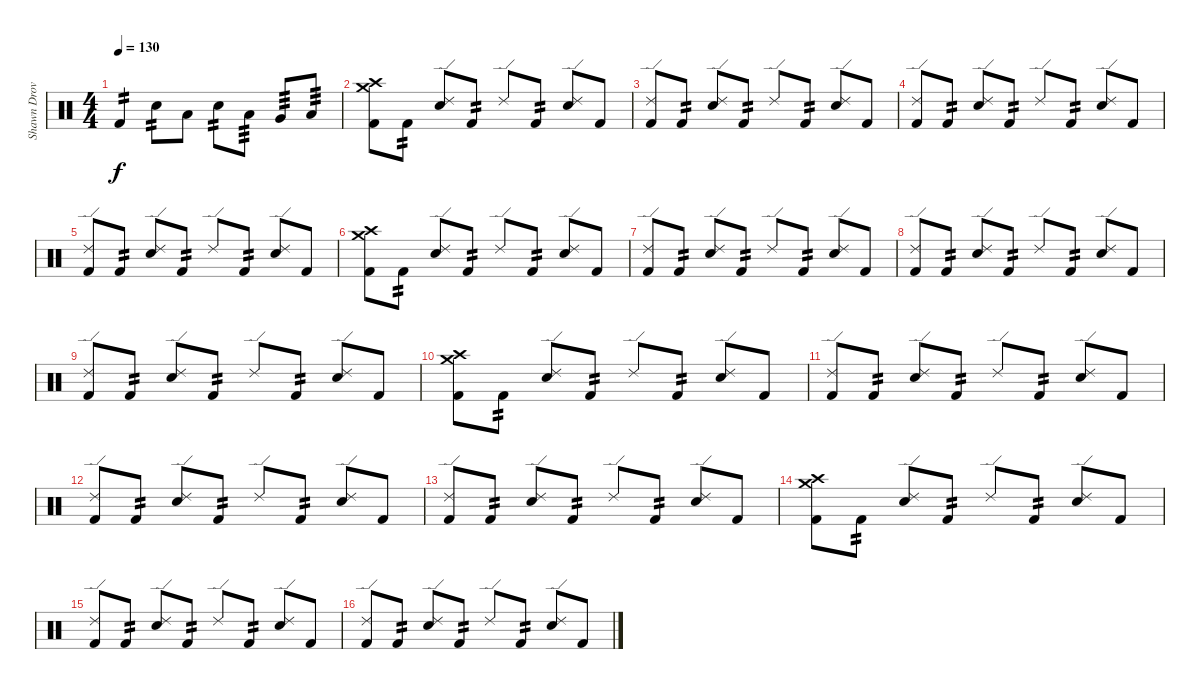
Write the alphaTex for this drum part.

\track ("Shawn Drover" "Shawn Drov") {instrument percussion}
\staff {score}
\articulation defaults
\ts (4 4)
\tempo 130
\clef neutral
\ks c "Kick (hit) 2".4{tp 2 dy f} "Electric Snare (hit)".8{tp 2} "Low Tom (hit)".8 "Electric Snare (hit)".8{tp 2} "Low Tom (hit)".8{tp 3} "Very Low Tom (hit)".8{tp 3} "Low Floor Tom (hit)".8{tp 3}
|
("Crash high (hit)" "Crash medium (hit)" "Kick (hit) 2").8 "Kick (hit) 2".8{tp 2} ("Ride (edge) 2" "Snare (hit) 2").8 "Kick (hit) 2".8{tp 2} "Ride (edge) 2".8 "Kick (hit) 2".8{tp 2} ("Ride (edge) 2" "Snare (hit) 2").8 "Kick (hit) 2".8 |
("Ride (edge) 2" "Kick (hit) 2").8 "Kick (hit) 2".8{tp 2} ("Ride (edge) 2" "Snare (hit) 2").8 "Kick (hit) 2".8{tp 2} "Ride (edge) 2".8 "Kick (hit) 2".8{tp 2} ("Ride (edge) 2" "Snare (hit) 2").8 "Kick (hit) 2".8 |
("Ride (edge) 2" "Kick (hit) 2").8 "Kick (hit) 2".8{tp 2} ("Ride (edge) 2" "Snare (hit) 2").8 "Kick (hit) 2".8{tp 2} "Ride (edge) 2".8 "Kick (hit) 2".8{tp 2} ("Ride (edge) 2" "Snare (hit) 2").8 "Kick (hit) 2".8 |
("Ride (edge) 2" "Kick (hit) 2").8 "Kick (hit) 2".8{tp 2} ("Ride (edge) 2" "Snare (hit) 2").8 "Kick (hit) 2".8{tp 2} "Ride (edge) 2".8 "Kick (hit) 2".8{tp 2} ("Ride (edge) 2" "Snare (hit) 2").8 "Kick (hit) 2".8 |
("Crash high (hit)" "Crash medium (hit)" "Kick (hit) 2").8 "Kick (hit) 2".8{tp 2} ("Ride (edge) 2" "Snare (hit) 2").8 "Kick (hit) 2".8{tp 2} "Ride (edge) 2".8 "Kick (hit) 2".8{tp 2} ("Ride (edge) 2" "Snare (hit) 2").8 "Kick (hit) 2".8 |
("Ride (edge) 2" "Kick (hit) 2").8 "Kick (hit) 2".8{tp 2} ("Ride (edge) 2" "Snare (hit) 2").8 "Kick (hit) 2".8{tp 2} "Ride (edge) 2".8 "Kick (hit) 2".8{tp 2} ("Ride (edge) 2" "Snare (hit) 2").8 "Kick (hit) 2".8 |
("Ride (edge) 2" "Kick (hit) 2").8 "Kick (hit) 2".8{tp 2} ("Ride (edge) 2" "Snare (hit) 2").8 "Kick (hit) 2".8{tp 2} "Ride (edge) 2".8 "Kick (hit) 2".8{tp 2} ("Ride (edge) 2" "Snare (hit) 2").8 "Kick (hit) 2".8 |
("Ride (edge) 2" "Kick (hit) 2").8 "Kick (hit) 2".8{tp 2} ("Ride (edge) 2" "Snare (hit) 2").8 "Kick (hit) 2".8{tp 2} "Ride (edge) 2".8 "Kick (hit) 2".8{tp 2} ("Ride (edge) 2" "Snare (hit) 2").8 "Kick (hit) 2".8 |
("Crash high (hit)" "Crash medium (hit)" "Kick (hit) 2").8 "Kick (hit) 2".8{tp 2} ("Ride (edge) 2" "Snare (hit) 2").8 "Kick (hit) 2".8{tp 2} "Ride (edge) 2".8 "Kick (hit) 2".8{tp 2} ("Ride (edge) 2" "Snare (hit) 2").8 "Kick (hit) 2".8 |
("Ride (edge) 2" "Kick (hit) 2").8 "Kick (hit) 2".8{tp 2} ("Ride (edge) 2" "Snare (hit) 2").8 "Kick (hit) 2".8{tp 2} "Ride (edge) 2".8 "Kick (hit) 2".8{tp 2} ("Ride (edge) 2" "Snare (hit) 2").8 "Kick (hit) 2".8 |
("Ride (edge) 2" "Kick (hit) 2").8 "Kick (hit) 2".8{tp 2} ("Ride (edge) 2" "Snare (hit) 2").8 "Kick (hit) 2".8{tp 2} "Ride (edge) 2".8 "Kick (hit) 2".8{tp 2} ("Ride (edge) 2" "Snare (hit) 2").8 "Kick (hit) 2".8 |
("Ride (edge) 2" "Kick (hit) 2").8 "Kick (hit) 2".8{tp 2} ("Ride (edge) 2" "Snare (hit) 2").8 "Kick (hit) 2".8{tp 2} "Ride (edge) 2".8 "Kick (hit) 2".8{tp 2} ("Ride (edge) 2" "Snare (hit) 2").8 "Kick (hit) 2".8 |
("Crash high (hit)" "Crash medium (hit)" "Kick (hit) 2").8 "Kick (hit) 2".8{tp 2} ("Ride (edge) 2" "Snare (hit) 2").8 "Kick (hit) 2".8{tp 2} "Ride (edge) 2".8 "Kick (hit) 2".8{tp 2} ("Ride (edge) 2" "Snare (hit) 2").8 "Kick (hit) 2".8 |
("Ride (edge) 2" "Kick (hit) 2").8 "Kick (hit) 2".8{tp 2} ("Ride (edge) 2" "Snare (hit) 2").8 "Kick (hit) 2".8{tp 2} "Ride (edge) 2".8 "Kick (hit) 2".8{tp 2} ("Ride (edge) 2" "Snare (hit) 2").8 "Kick (hit) 2".8 |
("Ride (edge) 2" "Kick (hit) 2").8 "Kick (hit) 2".8{tp 2} ("Ride (edge) 2" "Snare (hit) 2").8 "Kick (hit) 2".8{tp 2} "Ride (edge) 2".8 "Kick (hit) 2".8{tp 2} ("Ride (edge) 2" "Snare (hit) 2").8 "Kick (hit) 2".8
